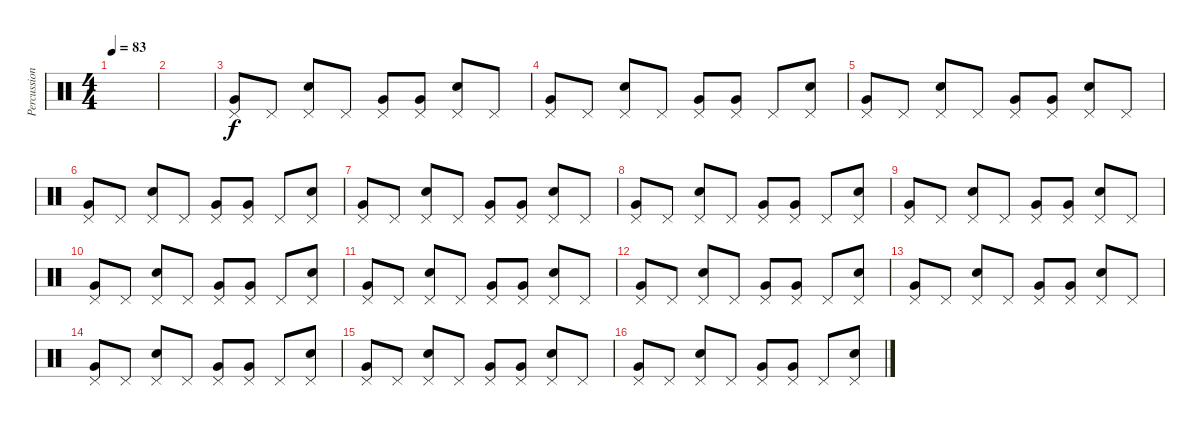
\track ("Percussion" "Percussion") {instrument percussion}
\staff {score}
\articulation defaults
\ts (4 4)
\tempo 83
\clef neutral
\ks c
|
|
("Pedal Hi-Hat (hit)" "Very Low Tom (hit)").8 "Pedal Hi-Hat (hit)".8 ("Pedal Hi-Hat (hit)" "Snare (hit) 2").8 "Pedal Hi-Hat (hit)".8 ("Pedal Hi-Hat (hit)" "Very Low Tom (hit)").8 ("Pedal Hi-Hat (hit)" "Very Low Tom (hit)").8 ("Pedal Hi-Hat (hit)" "Snare (hit) 2").8 "Pedal Hi-Hat (hit)".8 |
("Pedal Hi-Hat (hit)" "Very Low Tom (hit)").8 "Pedal Hi-Hat (hit)".8 ("Pedal Hi-Hat (hit)" "Snare (hit) 2").8 "Pedal Hi-Hat (hit)".8 ("Pedal Hi-Hat (hit)" "Very Low Tom (hit)").8 ("Pedal Hi-Hat (hit)" "Very Low Tom (hit)").8 "Pedal Hi-Hat (hit)".8 ("Pedal Hi-Hat (hit)" "Snare (hit) 2").8 |
("Pedal Hi-Hat (hit)" "Very Low Tom (hit)").8 "Pedal Hi-Hat (hit)".8 ("Pedal Hi-Hat (hit)" "Snare (hit) 2").8 "Pedal Hi-Hat (hit)".8 ("Pedal Hi-Hat (hit)" "Very Low Tom (hit)").8 ("Pedal Hi-Hat (hit)" "Very Low Tom (hit)").8 ("Pedal Hi-Hat (hit)" "Snare (hit) 2").8 "Pedal Hi-Hat (hit)".8 |
("Pedal Hi-Hat (hit)" "Very Low Tom (hit)").8 "Pedal Hi-Hat (hit)".8 ("Pedal Hi-Hat (hit)" "Snare (hit) 2").8 "Pedal Hi-Hat (hit)".8 ("Pedal Hi-Hat (hit)" "Very Low Tom (hit)").8 ("Pedal Hi-Hat (hit)" "Very Low Tom (hit)").8 "Pedal Hi-Hat (hit)".8 ("Pedal Hi-Hat (hit)" "Snare (hit) 2").8 |
("Pedal Hi-Hat (hit)" "Very Low Tom (hit)").8 "Pedal Hi-Hat (hit)".8 ("Pedal Hi-Hat (hit)" "Snare (hit) 2").8 "Pedal Hi-Hat (hit)".8 ("Pedal Hi-Hat (hit)" "Very Low Tom (hit)").8 ("Pedal Hi-Hat (hit)" "Very Low Tom (hit)").8 ("Pedal Hi-Hat (hit)" "Snare (hit) 2").8 "Pedal Hi-Hat (hit)".8 |
("Pedal Hi-Hat (hit)" "Very Low Tom (hit)").8 "Pedal Hi-Hat (hit)".8 ("Pedal Hi-Hat (hit)" "Snare (hit) 2").8 "Pedal Hi-Hat (hit)".8 ("Pedal Hi-Hat (hit)" "Very Low Tom (hit)").8 ("Pedal Hi-Hat (hit)" "Very Low Tom (hit)").8 "Pedal Hi-Hat (hit)".8 ("Pedal Hi-Hat (hit)" "Snare (hit) 2").8 |
("Pedal Hi-Hat (hit)" "Very Low Tom (hit)").8 "Pedal Hi-Hat (hit)".8 ("Pedal Hi-Hat (hit)" "Snare (hit) 2").8 "Pedal Hi-Hat (hit)".8 ("Pedal Hi-Hat (hit)" "Very Low Tom (hit)").8 ("Pedal Hi-Hat (hit)" "Very Low Tom (hit)").8 ("Pedal Hi-Hat (hit)" "Snare (hit) 2").8 "Pedal Hi-Hat (hit)".8 |
("Pedal Hi-Hat (hit)" "Very Low Tom (hit)").8 "Pedal Hi-Hat (hit)".8 ("Pedal Hi-Hat (hit)" "Snare (hit) 2").8 "Pedal Hi-Hat (hit)".8 ("Pedal Hi-Hat (hit)" "Very Low Tom (hit)").8 ("Pedal Hi-Hat (hit)" "Very Low Tom (hit)").8 "Pedal Hi-Hat (hit)".8 ("Pedal Hi-Hat (hit)" "Snare (hit) 2").8 |
("Pedal Hi-Hat (hit)" "Very Low Tom (hit)").8 "Pedal Hi-Hat (hit)".8 ("Pedal Hi-Hat (hit)" "Snare (hit) 2").8 "Pedal Hi-Hat (hit)".8 ("Pedal Hi-Hat (hit)" "Very Low Tom (hit)").8 ("Pedal Hi-Hat (hit)" "Very Low Tom (hit)").8 ("Pedal Hi-Hat (hit)" "Snare (hit) 2").8 "Pedal Hi-Hat (hit)".8 |
("Pedal Hi-Hat (hit)" "Very Low Tom (hit)").8 "Pedal Hi-Hat (hit)".8 ("Pedal Hi-Hat (hit)" "Snare (hit) 2").8 "Pedal Hi-Hat (hit)".8 ("Pedal Hi-Hat (hit)" "Very Low Tom (hit)").8 ("Pedal Hi-Hat (hit)" "Very Low Tom (hit)").8 "Pedal Hi-Hat (hit)".8 ("Pedal Hi-Hat (hit)" "Snare (hit) 2").8 |
("Pedal Hi-Hat (hit)" "Very Low Tom (hit)").8 "Pedal Hi-Hat (hit)".8 ("Pedal Hi-Hat (hit)" "Snare (hit) 2").8 "Pedal Hi-Hat (hit)".8 ("Pedal Hi-Hat (hit)" "Very Low Tom (hit)").8 ("Pedal Hi-Hat (hit)" "Very Low Tom (hit)").8 ("Pedal Hi-Hat (hit)" "Snare (hit) 2").8 "Pedal Hi-Hat (hit)".8 |
("Pedal Hi-Hat (hit)" "Very Low Tom (hit)").8 "Pedal Hi-Hat (hit)".8 ("Pedal Hi-Hat (hit)" "Snare (hit) 2").8 "Pedal Hi-Hat (hit)".8 ("Pedal Hi-Hat (hit)" "Very Low Tom (hit)").8 ("Pedal Hi-Hat (hit)" "Very Low Tom (hit)").8 "Pedal Hi-Hat (hit)".8 ("Pedal Hi-Hat (hit)" "Snare (hit) 2").8 |
("Pedal Hi-Hat (hit)" "Very Low Tom (hit)").8 "Pedal Hi-Hat (hit)".8 ("Pedal Hi-Hat (hit)" "Snare (hit) 2").8 "Pedal Hi-Hat (hit)".8 ("Pedal Hi-Hat (hit)" "Very Low Tom (hit)").8 ("Pedal Hi-Hat (hit)" "Very Low Tom (hit)").8 ("Pedal Hi-Hat (hit)" "Snare (hit) 2").8 "Pedal Hi-Hat (hit)".8 |
("Pedal Hi-Hat (hit)" "Very Low Tom (hit)").8 "Pedal Hi-Hat (hit)".8 ("Pedal Hi-Hat (hit)" "Snare (hit) 2").8 "Pedal Hi-Hat (hit)".8 ("Pedal Hi-Hat (hit)" "Very Low Tom (hit)").8 ("Pedal Hi-Hat (hit)" "Very Low Tom (hit)").8 "Pedal Hi-Hat (hit)".8 ("Pedal Hi-Hat (hit)" "Snare (hit) 2").8
